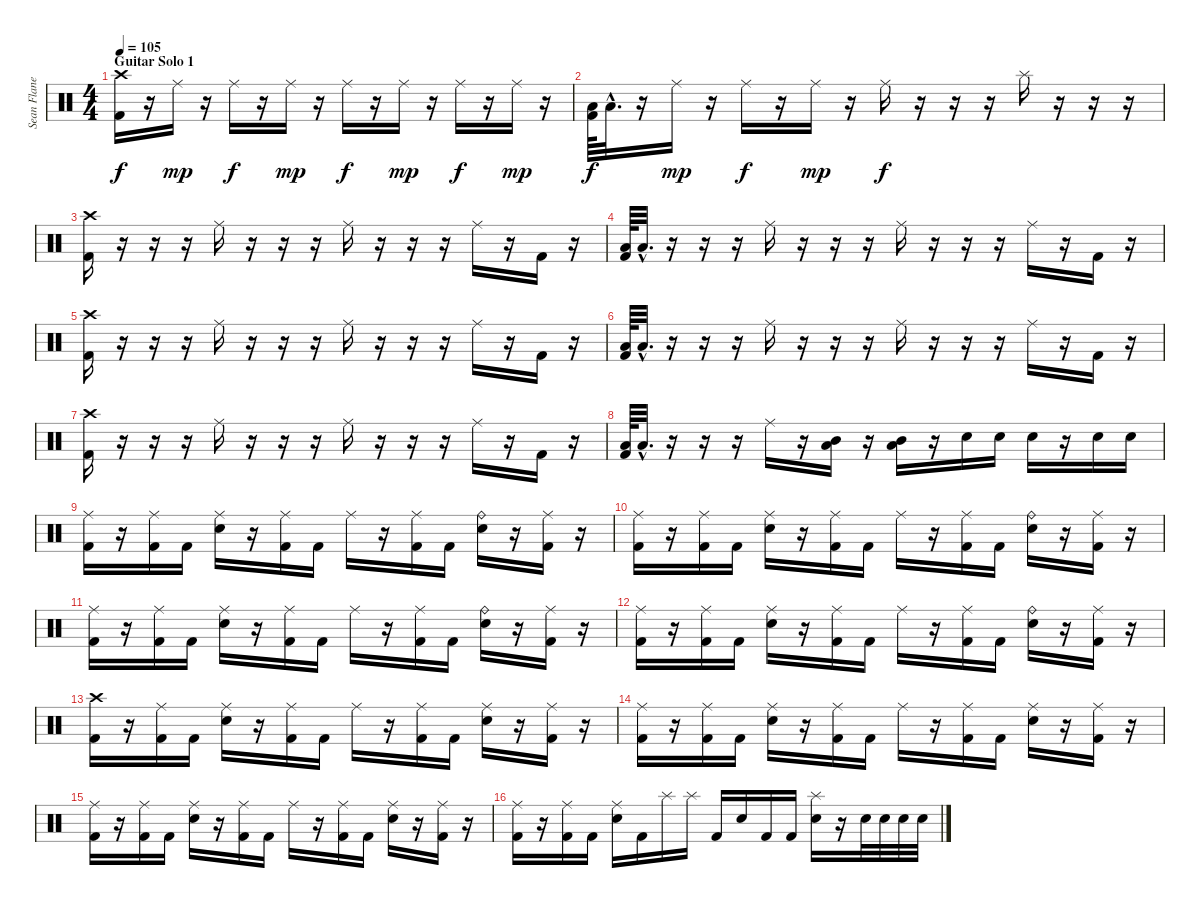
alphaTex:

\track ("Sean Flanegan [Drums]" "Sean Flane") {instrument percussion}
\staff {score}
\articulation defaults
\ts (4 4)
\section ("" "Guitar Solo 1")
\tempo 105
\clef neutral
\ks c
("Crash high (hit)" "Kick (hit) 2").16{dy f} r.16 "Ride (middle)".16{dy mp} r.16 "Ride (middle)".16{dy f} r.16 "Ride (middle)".16{dy mp} r.16 "Ride (middle)".16{dy f} r.16 "Ride (middle)".16{dy mp} r.16 "Ride (middle)".16{dy f} r.16 "Ride (middle)".16{dy mp} r.16 |
("Low Tom (hit)" "Kick (hit) 2").64{dy f} "Low Tom (hit)"{hac}.32{d} r.16 "Ride (middle)".16{dy mp} r.16 "Ride (middle)".16{dy f} r.16 "Ride (middle)".16{dy mp} r.16 "Ride (middle)".16{dy f} r.16 r.16 r.16 "Splash (hit)".16 r.16 r.16 r.16 |
("Crash high (hit)" "Kick (hit) 2").16 r.16 r.16 r.16 "Ride (middle)".16 r.16 r.16 r.16 "Ride (middle)".16 r.16 r.16 r.16 "Ride (middle)".16 r.16 "Kick (hit) 2".16 r.16 |
("Low Tom (hit)" "Kick (hit) 2").64 "Low Tom (hit)"{hac}.32{d} r.16 r.16 r.16 "Ride (middle)".16 r.16 r.16 r.16 "Ride (middle)".16 r.16 r.16 r.16 "Ride (middle)".16 r.16 "Kick (hit) 2".16 r.16 |
("Crash high (hit)" "Kick (hit) 2").16 r.16 r.16 r.16 "Ride (middle)".16 r.16 r.16 r.16 "Ride (middle)".16 r.16 r.16 r.16 "Ride (middle)".16 r.16 "Kick (hit) 2".16 r.16 |
("Low Tom (hit)" "Kick (hit) 2").64 "Low Tom (hit)"{hac}.32{d} r.16 r.16 r.16 "Ride (middle)".16 r.16 r.16 r.16 "Ride (middle)".16 r.16 r.16 r.16 "Ride (middle)".16 r.16 "Kick (hit) 2".16 r.16 |
("Crash high (hit)" "Kick (hit) 2").16 r.16 r.16 r.16 "Ride (middle)".16 r.16 r.16 r.16 "Ride (middle)".16 r.16 r.16 r.16 "Ride (middle)".16 r.16 "Kick (hit) 2".16 r.16 |
("Low Tom (hit)" "Kick (hit) 2").64 "Low Tom (hit)"{hac}.32{d} r.16 r.16 r.16 "Ride (middle)".16 r.16 ("Mid Tom (hit)" "Low Tom (hit)").16 r.16 ("Mid Tom (hit)" "Low Tom (hit)").16 r.16 "Electric Snare (hit)".16 "Electric Snare (hit)".16 "Electric Snare (hit)".16 r.16 "Electric Snare (hit)".16 "Electric Snare (hit)".16 |
("Ride (middle)" "Kick (hit) 2").16 r.16 ("Ride (middle)" "Kick (hit) 2").16 "Kick (hit) 2".16 ("Ride (middle)" "Electric Snare (hit)").16 r.16 ("Ride (middle)" "Kick (hit) 2").16 "Kick (hit) 2".16 "Ride (middle)".16 r.16 ("Ride (middle)" "Kick (hit) 2").16 "Kick (hit) 2".16 ("Ride (bell)" "Electric Snare (hit)").16 r.16 ("Ride (middle)" "Kick (hit) 2").16 r.16 |
("Ride (middle)" "Kick (hit) 2").16 r.16 ("Ride (middle)" "Kick (hit) 2").16 "Kick (hit) 2".16 ("Ride (middle)" "Electric Snare (hit)").16 r.16 ("Ride (middle)" "Kick (hit) 2").16 "Kick (hit) 2".16 "Ride (middle)".16 r.16 ("Ride (middle)" "Kick (hit) 2").16 "Kick (hit) 2".16 ("Ride (bell)" "Electric Snare (hit)").16 r.16 ("Ride (middle)" "Kick (hit) 2").16 r.16 |
("Ride (middle)" "Kick (hit) 2").16 r.16 ("Ride (middle)" "Kick (hit) 2").16 "Kick (hit) 2".16 ("Ride (middle)" "Electric Snare (hit)").16 r.16 ("Ride (middle)" "Kick (hit) 2").16 "Kick (hit) 2".16 "Ride (middle)".16 r.16 ("Ride (middle)" "Kick (hit) 2").16 "Kick (hit) 2".16 ("Ride (bell)" "Electric Snare (hit)").16 r.16 ("Ride (middle)" "Kick (hit) 2").16 r.16 |
("Ride (middle)" "Kick (hit) 2").16 r.16 ("Ride (middle)" "Kick (hit) 2").16 "Kick (hit) 2".16 ("Ride (middle)" "Electric Snare (hit)").16 r.16 ("Ride (middle)" "Kick (hit) 2").16 "Kick (hit) 2".16 "Ride (middle)".16 r.16 ("Ride (middle)" "Kick (hit) 2").16 "Kick (hit) 2".16 ("Ride (bell)" "Electric Snare (hit)").16 r.16 ("Ride (middle)" "Kick (hit) 2").16 r.16 |
("Crash high (hit)" "Kick (hit) 2").16 r.16 ("Ride (middle)" "Kick (hit) 2").16 "Kick (hit) 2".16 ("Ride (middle)" "Electric Snare (hit)").16 r.16 ("Ride (middle)" "Kick (hit) 2").16 "Kick (hit) 2".16 "Ride (middle)".16 r.16 ("Ride (middle)" "Kick (hit) 2").16 "Kick (hit) 2".16 ("Ride (middle)" "Electric Snare (hit)").16 r.16 ("Ride (middle)" "Kick (hit) 2").16 r.16 |
("Ride (middle)" "Kick (hit) 2").16 r.16 ("Ride (middle)" "Kick (hit) 2").16 "Kick (hit) 2".16 ("Ride (middle)" "Electric Snare (hit)").16 r.16 ("Ride (middle)" "Kick (hit) 2").16 "Kick (hit) 2".16 "Ride (middle)".16 r.16 ("Ride (middle)" "Kick (hit) 2").16 "Kick (hit) 2".16 ("Ride (middle)" "Electric Snare (hit)").16 r.16 ("Ride (middle)" "Kick (hit) 2").16 r.16 |
("Ride (middle)" "Kick (hit) 2").16 r.16 ("Ride (middle)" "Kick (hit) 2").16 "Kick (hit) 2".16 ("Ride (middle)" "Electric Snare (hit)").16 r.16 ("Ride (middle)" "Kick (hit) 2").16 "Kick (hit) 2".16 "Ride (middle)".16 r.16 ("Ride (middle)" "Kick (hit) 2").16 "Kick (hit) 2".16 ("Ride (middle)" "Electric Snare (hit)").16 r.16 ("Ride (middle)" "Kick (hit) 2").16 r.16 |
("Ride (middle)" "Kick (hit) 2").16 r.16 ("Ride (middle)" "Kick (hit) 2").16 "Kick (hit) 2".16 ("Ride (middle)" "Electric Snare (hit)").16 "Kick (hit) 2".16 "Splash (hit)".16 "Splash (hit)".16 "Kick (hit) 2".16 "Electric Snare (hit)".16 "Kick (hit) 2".16 "Kick (hit) 2".16 ("Splash (hit)" "Electric Snare (hit)").16 r.16 "Electric Snare (hit)".32 "Electric Snare (hit)".32 "Electric Snare (hit)".32 "Electric Snare (hit)".32
